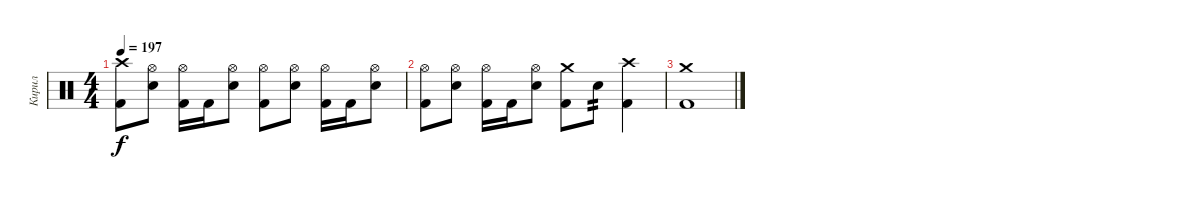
\track ("Кирил" "Кирил") {instrument percussion}
\staff {score}
\articulation defaults
\ts (4 4)
\tempo 197
\clef neutral
\ks c
("Crash high (hit)" "Kick (hit) 2").8{dy f} ("Hi-Hat (open)" "Electric Snare (hit)").8 ("Hi-Hat (open)" "Kick (hit) 2").16 "Kick (hit) 2".16 ("Hi-Hat (open)" "Electric Snare (hit)").8 ("Hi-Hat (open)" "Kick (hit) 2").8 ("Hi-Hat (open)" "Electric Snare (hit)").8 ("Hi-Hat (open)" "Kick (hit) 2").16 "Kick (hit) 2".16 ("Hi-Hat (open)" "Electric Snare (hit)").8 |
("Hi-Hat (open)" "Kick (hit) 2").8 ("Hi-Hat (open)" "Electric Snare (hit)").8 ("Hi-Hat (open)" "Kick (hit) 2").16 "Kick (hit) 2".16 ("Hi-Hat (open)" "Electric Snare (hit)").8 ("Crash medium (hit)" "Kick (hit) 2").8 "Electric Snare (hit)".8{tp 2} ("Crash high (hit)" "Kick (hit) 2").4 |
("Crash medium (hit)" "Kick (hit) 2").1
